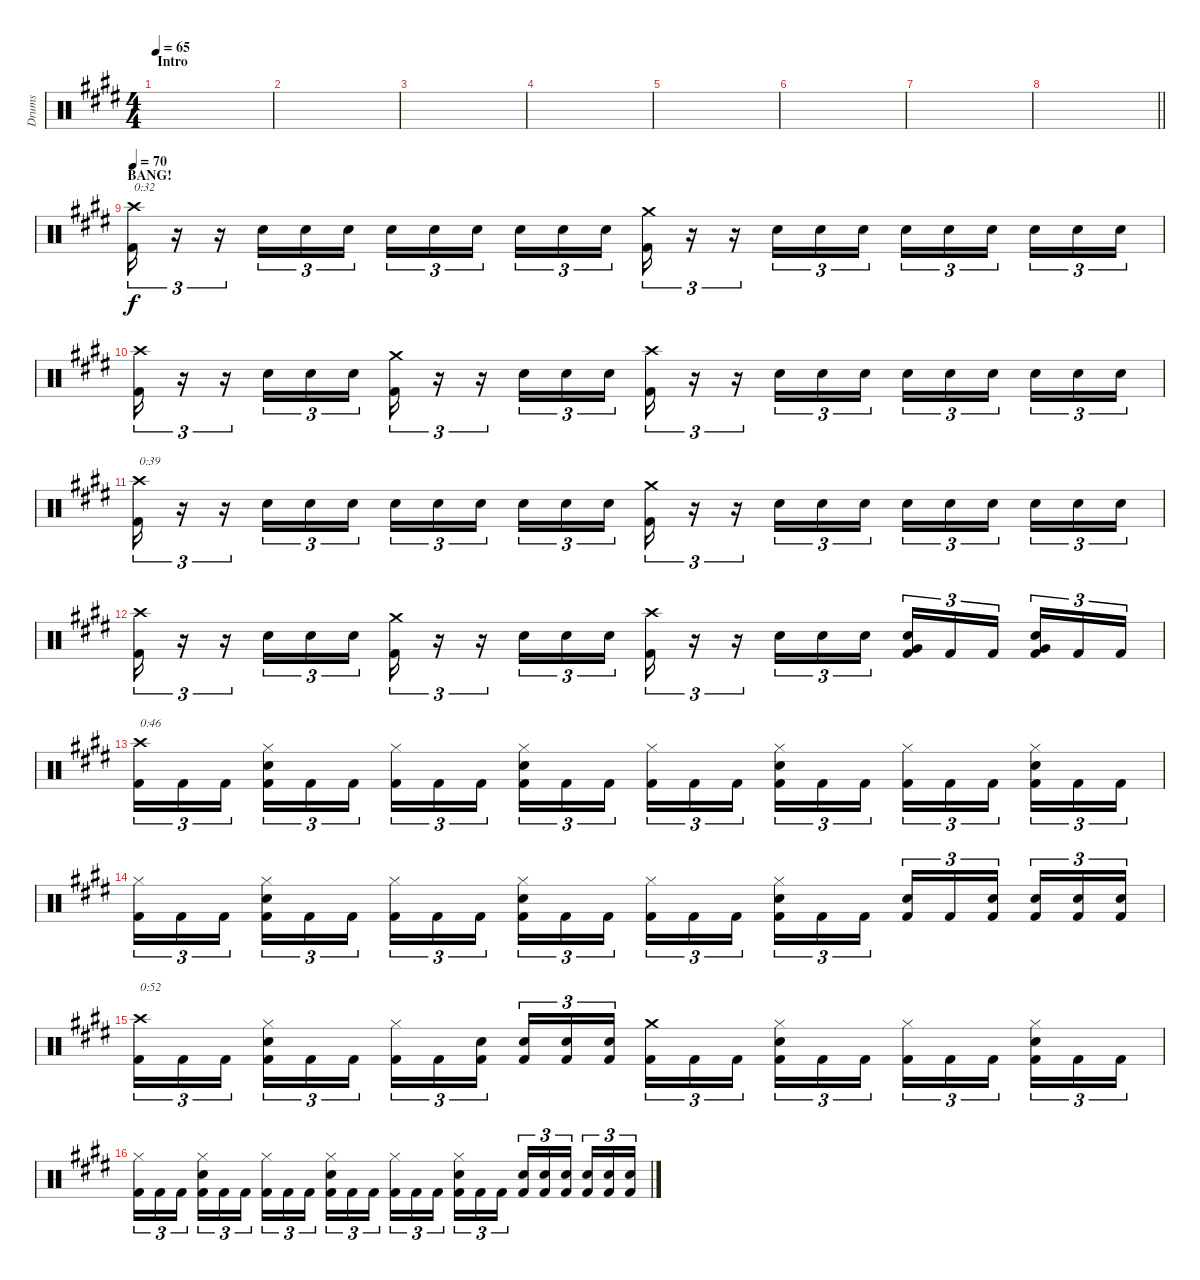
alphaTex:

\track ("Drums" "Drums") {instrument percussion}
\staff {score}
\articulation defaults
\ts (4 4)
\section ("" "Intro")
\tempo 65
\clef neutral
\ks c#minor
|
|
|
|
|
|
|
\barLineRight lightlight
|
\section ("" "BANG!")
\tempo 70
("Crash high (hit)" "Kick (hit) 2").16{tu (3 2) txt "0:32"} r.16{tu (3 2)} r.16{tu (3 2)} "Snare (hit) 2".16{tu (3 2)} "Snare (hit) 2".16{tu (3 2)} "Snare (hit) 2".16{tu (3 2)} "Snare (hit) 2".16{tu (3 2)} "Snare (hit) 2".16{tu (3 2)} "Snare (hit) 2".16{tu (3 2) beam splitsecondary} "Snare (hit) 2".16{tu (3 2)} "Snare (hit) 2".16{tu (3 2)} "Snare (hit) 2".16{tu (3 2)} ("Crash medium (hit)" "Kick (hit) 2").16{tu (3 2)} r.16{tu (3 2)} r.16{tu (3 2)} "Snare (hit) 2".16{tu (3 2)} "Snare (hit) 2".16{tu (3 2)} "Snare (hit) 2".16{tu (3 2)} "Snare (hit) 2".16{tu (3 2)} "Snare (hit) 2".16{tu (3 2)} "Snare (hit) 2".16{tu (3 2) beam splitsecondary} "Snare (hit) 2".16{tu (3 2)} "Snare (hit) 2".16{tu (3 2)} "Snare (hit) 2".16{tu (3 2)} |
("Crash high (hit)" "Kick (hit) 2").16{tu (3 2)} r.16{tu (3 2)} r.16{tu (3 2)} "Snare (hit) 2".16{tu (3 2)} "Snare (hit) 2".16{tu (3 2)} "Snare (hit) 2".16{tu (3 2)} ("Crash medium (hit)" "Kick (hit) 2").16{tu (3 2)} r.16{tu (3 2)} r.16{tu (3 2)} "Snare (hit) 2".16{tu (3 2)} "Snare (hit) 2".16{tu (3 2)} "Snare (hit) 2".16{tu (3 2)} ("Crash high (hit)" "Kick (hit) 2").16{tu (3 2)} r.16{tu (3 2)} r.16{tu (3 2)} "Snare (hit) 2".16{tu (3 2)} "Snare (hit) 2".16{tu (3 2)} "Snare (hit) 2".16{tu (3 2)} "Snare (hit) 2".16{tu (3 2)} "Snare (hit) 2".16{tu (3 2)} "Snare (hit) 2".16{tu (3 2) beam splitsecondary} "Snare (hit) 2".16{tu (3 2)} "Snare (hit) 2".16{tu (3 2)} "Snare (hit) 2".16{tu (3 2)} |
("Crash high (hit)" "Kick (hit) 2").16{tu (3 2) txt "0:39"} r.16{tu (3 2)} r.16{tu (3 2)} "Snare (hit) 2".16{tu (3 2)} "Snare (hit) 2".16{tu (3 2)} "Snare (hit) 2".16{tu (3 2)} "Snare (hit) 2".16{tu (3 2)} "Snare (hit) 2".16{tu (3 2)} "Snare (hit) 2".16{tu (3 2) beam splitsecondary} "Snare (hit) 2".16{tu (3 2)} "Snare (hit) 2".16{tu (3 2)} "Snare (hit) 2".16{tu (3 2)} ("Crash medium (hit)" "Kick (hit) 2").16{tu (3 2)} r.16{tu (3 2)} r.16{tu (3 2)} "Snare (hit) 2".16{tu (3 2)} "Snare (hit) 2".16{tu (3 2)} "Snare (hit) 2".16{tu (3 2)} "Snare (hit) 2".16{tu (3 2)} "Snare (hit) 2".16{tu (3 2)} "Snare (hit) 2".16{tu (3 2) beam splitsecondary} "Snare (hit) 2".16{tu (3 2)} "Snare (hit) 2".16{tu (3 2)} "Snare (hit) 2".16{tu (3 2)} |
("Crash high (hit)" "Kick (hit) 2").16{tu (3 2)} r.16{tu (3 2)} r.16{tu (3 2)} "Snare (hit) 2".16{tu (3 2)} "Snare (hit) 2".16{tu (3 2)} "Snare (hit) 2".16{tu (3 2)} ("Crash medium (hit)" "Kick (hit) 2").16{tu (3 2)} r.16{tu (3 2)} r.16{tu (3 2)} "Snare (hit) 2".16{tu (3 2)} "Snare (hit) 2".16{tu (3 2)} "Snare (hit) 2".16{tu (3 2)} ("Crash high (hit)" "Kick (hit) 2").16{tu (3 2)} r.16{tu (3 2)} r.16{tu (3 2)} "Snare (hit) 2".16{tu (3 2)} "Snare (hit) 2".16{tu (3 2)} "Snare (hit) 2".16{tu (3 2)} ("Very Low Tom (hit)" "Snare (hit) 2" "Kick (hit) 2").16{tu (3 2)} "Kick (hit) 2".16{tu (3 2)} "Kick (hit) 2".16{tu (3 2) beam splitsecondary} ("Very Low Tom (hit)" "Snare (hit) 2" "Kick (hit) 2").16{tu (3 2)} "Kick (hit) 2".16{tu (3 2)} "Kick (hit) 2".16{tu (3 2)} |
("Crash high (hit)" "Kick (hit) 2").16{tu (3 2) txt "0:46"} "Kick (hit) 2".16{tu (3 2)} "Kick (hit) 2".16{tu (3 2) beam splitsecondary} ("Hi-Hat (closed)" "Snare (hit) 2" "Kick (hit) 2").16{tu (3 2)} "Kick (hit) 2".16{tu (3 2)} "Kick (hit) 2".16{tu (3 2)} ("Hi-Hat (closed)" "Kick (hit) 2").16{tu (3 2)} "Kick (hit) 2".16{tu (3 2)} "Kick (hit) 2".16{tu (3 2) beam splitsecondary} ("Hi-Hat (closed)" "Snare (hit) 2" "Kick (hit) 2").16{tu (3 2)} "Kick (hit) 2".16{tu (3 2)} "Kick (hit) 2".16{tu (3 2)} ("Hi-Hat (closed)" "Kick (hit) 2").16{tu (3 2)} "Kick (hit) 2".16{tu (3 2)} "Kick (hit) 2".16{tu (3 2) beam splitsecondary} ("Hi-Hat (closed)" "Snare (hit) 2" "Kick (hit) 2").16{tu (3 2)} "Kick (hit) 2".16{tu (3 2)} "Kick (hit) 2".16{tu (3 2)} ("Hi-Hat (closed)" "Kick (hit) 2").16{tu (3 2)} "Kick (hit) 2".16{tu (3 2)} "Kick (hit) 2".16{tu (3 2) beam splitsecondary} ("Hi-Hat (closed)" "Snare (hit) 2" "Kick (hit) 2").16{tu (3 2)} "Kick (hit) 2".16{tu (3 2)} "Kick (hit) 2".16{tu (3 2)} |
("Hi-Hat (closed)" "Kick (hit) 2").16{tu (3 2)} "Kick (hit) 2".16{tu (3 2)} "Kick (hit) 2".16{tu (3 2) beam splitsecondary} ("Hi-Hat (closed)" "Snare (hit) 2" "Kick (hit) 2").16{tu (3 2)} "Kick (hit) 2".16{tu (3 2)} "Kick (hit) 2".16{tu (3 2)} ("Hi-Hat (closed)" "Kick (hit) 2").16{tu (3 2)} "Kick (hit) 2".16{tu (3 2)} "Kick (hit) 2".16{tu (3 2) beam splitsecondary} ("Hi-Hat (closed)" "Snare (hit) 2" "Kick (hit) 2").16{tu (3 2)} "Kick (hit) 2".16{tu (3 2)} "Kick (hit) 2".16{tu (3 2)} ("Hi-Hat (closed)" "Kick (hit) 2").16{tu (3 2)} "Kick (hit) 2".16{tu (3 2)} "Kick (hit) 2".16{tu (3 2) beam splitsecondary} ("Hi-Hat (closed)" "Snare (hit) 2" "Kick (hit) 2").16{tu (3 2)} "Kick (hit) 2".16{tu (3 2)} "Kick (hit) 2".16{tu (3 2)} ("Snare (hit) 2" "Kick (hit) 2").16{tu (3 2)} "Kick (hit) 2".16{tu (3 2)} ("Snare (hit) 2" "Kick (hit) 2").16{tu (3 2) beam splitsecondary} ("Snare (hit) 2" "Kick (hit) 2").16{tu (3 2)} ("Snare (hit) 2" "Kick (hit) 2").16{tu (3 2)} ("Snare (hit) 2" "Kick (hit) 2").16{tu (3 2)} |
("Crash high (hit)" "Kick (hit) 2").16{tu (3 2) txt "0:52"} "Kick (hit) 2".16{tu (3 2)} "Kick (hit) 2".16{tu (3 2) beam splitsecondary} ("Hi-Hat (closed)" "Snare (hit) 2" "Kick (hit) 2").16{tu (3 2)} "Kick (hit) 2".16{tu (3 2)} "Kick (hit) 2".16{tu (3 2)} ("Hi-Hat (closed)" "Kick (hit) 2").16{tu (3 2)} "Kick (hit) 2".16{tu (3 2)} ("Snare (hit) 2" "Kick (hit) 2").16{tu (3 2) beam splitsecondary} ("Snare (hit) 2" "Kick (hit) 2").16{tu (3 2)} ("Snare (hit) 2" "Kick (hit) 2").16{tu (3 2)} ("Snare (hit) 2" "Kick (hit) 2").16{tu (3 2)} ("Crash medium (hit)" "Kick (hit) 2").16{tu (3 2)} "Kick (hit) 2".16{tu (3 2)} "Kick (hit) 2".16{tu (3 2) beam splitsecondary} ("Hi-Hat (closed)" "Snare (hit) 2" "Kick (hit) 2").16{tu (3 2)} "Kick (hit) 2".16{tu (3 2)} "Kick (hit) 2".16{tu (3 2)} ("Hi-Hat (closed)" "Kick (hit) 2").16{tu (3 2)} "Kick (hit) 2".16{tu (3 2)} "Kick (hit) 2".16{tu (3 2) beam splitsecondary} ("Hi-Hat (closed)" "Snare (hit) 2" "Kick (hit) 2").16{tu (3 2)} "Kick (hit) 2".16{tu (3 2)} "Kick (hit) 2".16{tu (3 2)} |
("Hi-Hat (closed)" "Kick (hit) 2").16{tu (3 2)} "Kick (hit) 2".16{tu (3 2)} "Kick (hit) 2".16{tu (3 2) beam splitsecondary} ("Hi-Hat (closed)" "Snare (hit) 2" "Kick (hit) 2").16{tu (3 2)} "Kick (hit) 2".16{tu (3 2)} "Kick (hit) 2".16{tu (3 2)} ("Hi-Hat (closed)" "Kick (hit) 2").16{tu (3 2)} "Kick (hit) 2".16{tu (3 2)} "Kick (hit) 2".16{tu (3 2) beam splitsecondary} ("Hi-Hat (closed)" "Snare (hit) 2" "Kick (hit) 2").16{tu (3 2)} "Kick (hit) 2".16{tu (3 2)} "Kick (hit) 2".16{tu (3 2)} ("Hi-Hat (closed)" "Kick (hit) 2").16{tu (3 2)} "Kick (hit) 2".16{tu (3 2)} "Kick (hit) 2".16{tu (3 2) beam splitsecondary} ("Hi-Hat (closed)" "Snare (hit) 2" "Kick (hit) 2").16{tu (3 2)} "Kick (hit) 2".16{tu (3 2)} "Kick (hit) 2".16{tu (3 2)} ("Snare (hit) 2" "Kick (hit) 2").16{tu (3 2)} ("Snare (hit) 2" "Kick (hit) 2").16{tu (3 2)} ("Snare (hit) 2" "Kick (hit) 2").16{tu (3 2) beam splitsecondary} ("Snare (hit) 2" "Kick (hit) 2").16{tu (3 2)} ("Snare (hit) 2" "Kick (hit) 2").16{tu (3 2)} ("Snare (hit) 2" "Kick (hit) 2").16{tu (3 2)}
